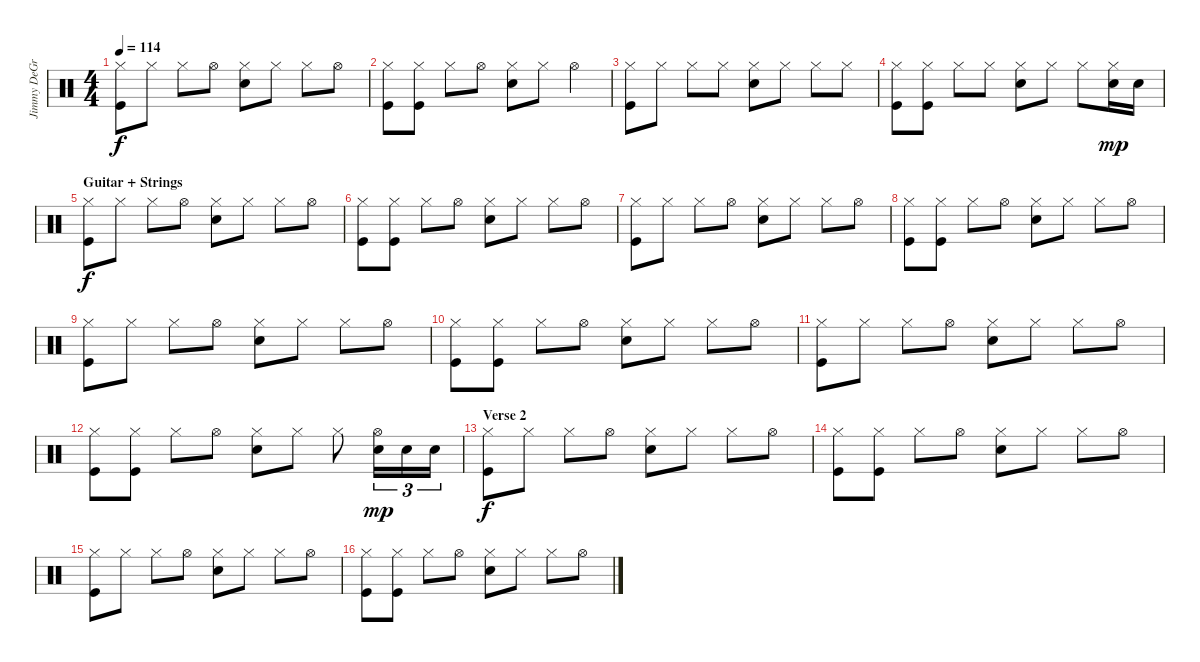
\track ("Jimmy DeGrasso" "Jimmy DeGr") {instrument percussion}
\staff {score}
\articulation defaults
\ts (4 4)
\tempo 114
\clef neutral
\ks c
("Hi-Hat (closed)" "Kick (hit)").8{dy f} "Hi-Hat (closed)".8 "Hi-Hat (closed)".8 "Hi-Hat (open)".8 ("Hi-Hat (closed)" "Snare (hit) 2").8 "Hi-Hat (closed)".8 "Hi-Hat (closed)".8 "Hi-Hat (open)".8 |
("Hi-Hat (closed)" "Kick (hit)").8 ("Hi-Hat (closed)" "Kick (hit)").8 "Hi-Hat (closed)".8 "Hi-Hat (open)".8 ("Hi-Hat (closed)" "Snare (hit) 2").8 "Hi-Hat (closed)".8 "Hi-Hat (open)".4 |
("Hi-Hat (closed)" "Kick (hit)").8 "Hi-Hat (closed)".8 "Hi-Hat (closed)".8 "Hi-Hat (closed)".8 ("Hi-Hat (closed)" "Snare (hit) 2").8 "Hi-Hat (closed)".8 "Hi-Hat (closed)".8 "Hi-Hat (closed)".8 |
("Hi-Hat (closed)" "Kick (hit)").8 ("Hi-Hat (closed)" "Kick (hit)").8 "Hi-Hat (closed)".8 "Hi-Hat (closed)".8 ("Hi-Hat (closed)" "Snare (hit) 2").8 "Hi-Hat (closed)".8 "Hi-Hat (closed)".8 ("Hi-Hat (closed)" "Snare (hit) 2").16{dy mp} "Snare (hit) 2".16 |
\section ("" "Guitar + Strings")
("Hi-Hat (closed)" "Kick (hit)").8{dy f volume 12} "Hi-Hat (closed)".8 "Hi-Hat (closed)".8 "Hi-Hat (open)".8 ("Hi-Hat (closed)" "Snare (hit) 2").8 "Hi-Hat (closed)".8 "Hi-Hat (closed)".8 "Hi-Hat (open)".8 |
("Hi-Hat (closed)" "Kick (hit)").8 ("Hi-Hat (closed)" "Kick (hit)").8 "Hi-Hat (closed)".8 "Hi-Hat (open)".8 ("Hi-Hat (closed)" "Snare (hit) 2").8 "Hi-Hat (closed)".8 "Hi-Hat (closed)".8 "Hi-Hat (open)".8 |
("Hi-Hat (closed)" "Kick (hit)").8 "Hi-Hat (closed)".8 "Hi-Hat (closed)".8 "Hi-Hat (open)".8 ("Hi-Hat (closed)" "Snare (hit) 2").8 "Hi-Hat (closed)".8 "Hi-Hat (closed)".8 "Hi-Hat (open)".8 |
("Hi-Hat (closed)" "Kick (hit)").8 ("Hi-Hat (closed)" "Kick (hit)").8 "Hi-Hat (closed)".8 "Hi-Hat (open)".8 ("Hi-Hat (closed)" "Snare (hit) 2").8 "Hi-Hat (closed)".8 "Hi-Hat (closed)".8 "Hi-Hat (open)".8 |
("Hi-Hat (closed)" "Kick (hit)").8 "Hi-Hat (closed)".8 "Hi-Hat (closed)".8 "Hi-Hat (open)".8 ("Hi-Hat (closed)" "Snare (hit) 2").8 "Hi-Hat (closed)".8 "Hi-Hat (closed)".8 "Hi-Hat (open)".8 |
("Hi-Hat (closed)" "Kick (hit)").8 ("Hi-Hat (closed)" "Kick (hit)").8 "Hi-Hat (closed)".8 "Hi-Hat (open)".8 ("Hi-Hat (closed)" "Snare (hit) 2").8 "Hi-Hat (closed)".8 "Hi-Hat (closed)".8 "Hi-Hat (open)".8 |
("Hi-Hat (closed)" "Kick (hit)").8 "Hi-Hat (closed)".8 "Hi-Hat (closed)".8 "Hi-Hat (open)".8 ("Hi-Hat (closed)" "Snare (hit) 2").8 "Hi-Hat (closed)".8 "Hi-Hat (closed)".8 "Hi-Hat (open)".8 |
("Hi-Hat (closed)" "Kick (hit)").8 ("Hi-Hat (closed)" "Kick (hit)").8 "Hi-Hat (closed)".8 "Hi-Hat (open)".8 ("Hi-Hat (closed)" "Snare (hit) 2").8 "Hi-Hat (closed)".8 "Hi-Hat (closed)".8 ("Hi-Hat (open)" "Snare (hit) 2").16{tu (3 2) dy mp} "Snare (hit) 2".16{tu (3 2)} "Snare (hit) 2".16{tu (3 2)} |
\section ("" "Verse 2")
("Hi-Hat (closed)" "Kick (hit)").8{dy f} "Hi-Hat (closed)".8 "Hi-Hat (closed)".8 "Hi-Hat (open)".8 ("Hi-Hat (closed)" "Snare (hit) 2").8 "Hi-Hat (closed)".8 "Hi-Hat (closed)".8 "Hi-Hat (open)".8 |
("Hi-Hat (closed)" "Kick (hit)").8 ("Hi-Hat (closed)" "Kick (hit)").8 "Hi-Hat (closed)".8 "Hi-Hat (open)".8 ("Hi-Hat (closed)" "Snare (hit) 2").8 "Hi-Hat (closed)".8 "Hi-Hat (closed)".8 "Hi-Hat (open)".8 |
("Hi-Hat (closed)" "Kick (hit)").8 "Hi-Hat (closed)".8 "Hi-Hat (closed)".8 "Hi-Hat (open)".8 ("Hi-Hat (closed)" "Snare (hit) 2").8 "Hi-Hat (closed)".8 "Hi-Hat (closed)".8 "Hi-Hat (open)".8 |
("Hi-Hat (closed)" "Kick (hit)").8 ("Hi-Hat (closed)" "Kick (hit)").8 "Hi-Hat (closed)".8 "Hi-Hat (open)".8 ("Hi-Hat (closed)" "Snare (hit) 2").8 "Hi-Hat (closed)".8 "Hi-Hat (closed)".8 "Hi-Hat (open)".8
